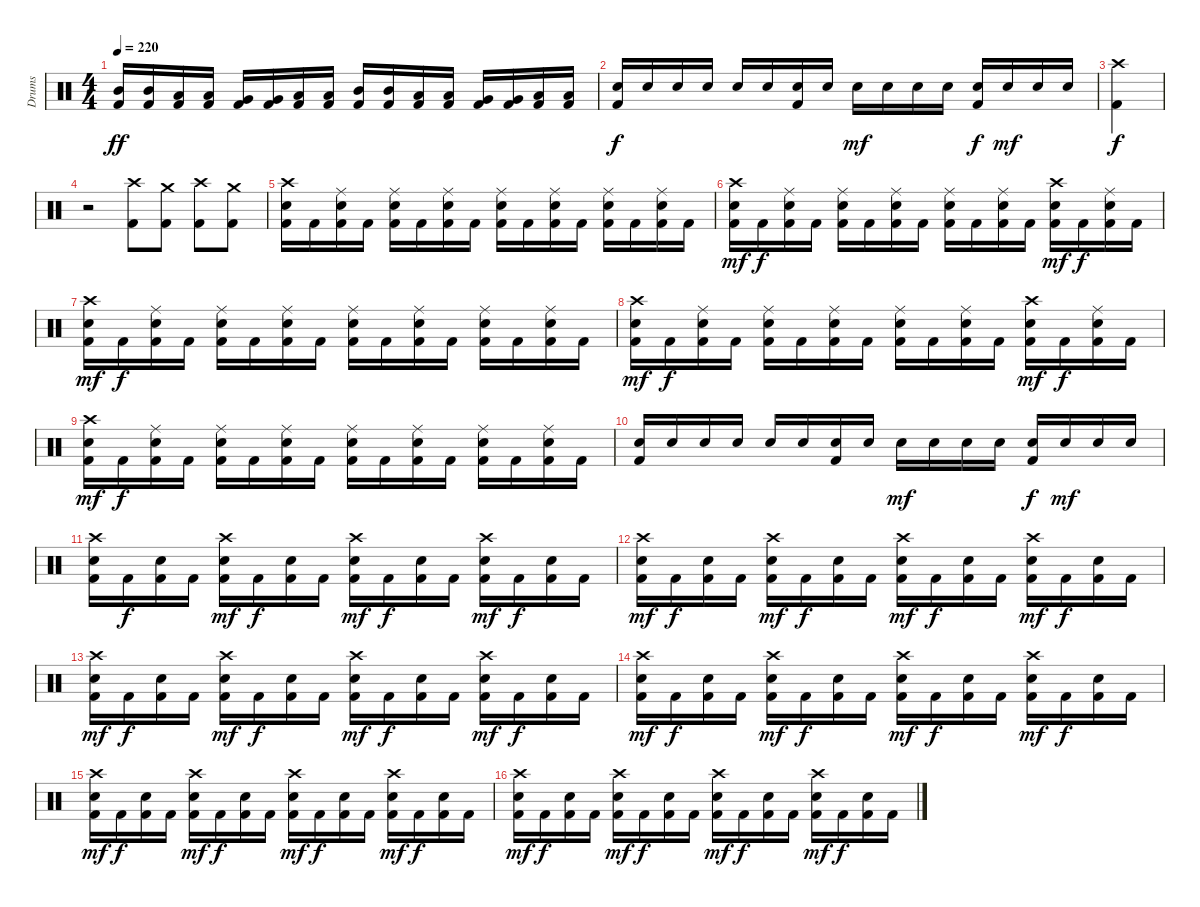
\track ("Drums" "Drums") {instrument percussion}
\staff {score}
\articulation defaults
\ts (4 4)
\tempo 220
\clef neutral
\ks c
("Kick (hit) 2" "Mid Tom (hit)").16{dy ff} ("Kick (hit) 2" "Mid Tom (hit)").16 ("Kick (hit) 2" "Low Tom (hit)").16 ("Kick (hit) 2" "Low Tom (hit)").16 ("Kick (hit) 2" "Very Low Tom (hit)").16 ("Kick (hit) 2" "Very Low Tom (hit)").16 ("Kick (hit) 2" "Low Floor Tom (hit)").16 ("Kick (hit) 2" "Low Floor Tom (hit)").16 ("Kick (hit) 2" "Mid Tom (hit)").16 ("Kick (hit) 2" "Mid Tom (hit)").16 ("Kick (hit) 2" "Low Tom (hit)").16 ("Kick (hit) 2" "Low Tom (hit)").16 ("Kick (hit) 2" "Very Low Tom (hit)").16 ("Kick (hit) 2" "Very Low Tom (hit)").16 ("Kick (hit) 2" "Low Floor Tom (hit)").16 ("Kick (hit) 2" "Low Floor Tom (hit)").16 |
("Electric Snare (hit)" "Kick (hit) 2").16{dy f} "Electric Snare (hit)".16 "Electric Snare (hit)".16 "Electric Snare (hit)".16 "Electric Snare (hit)".16 "Electric Snare (hit)".16 ("Electric Snare (hit)" "Kick (hit) 2").16 "Electric Snare (hit)".16 "Electric Snare (hit)".16{dy mf} "Electric Snare (hit)".16 "Electric Snare (hit)".16 "Electric Snare (hit)".16 ("Electric Snare (hit)" "Kick (hit) 2").16{dy f} "Electric Snare (hit)".16{dy mf} "Electric Snare (hit)".16 "Electric Snare (hit)".16 |
("Kick (hit) 2" "Crash high (hit)").4{dy f} |
r.2 ("Kick (hit) 2" "Crash high (hit)").8 ("Kick (hit) 2" "Crash medium (hit)").8 ("Kick (hit) 2" "Crash high (hit)").8 ("Kick (hit) 2" "Crash medium (hit)").8 |
("Kick (hit) 2" "Electric Snare (hit)" "Crash high (hit)").16 "Kick (hit) 2".16 ("Kick (hit) 2" "Electric Snare (hit)" "Ride (middle)").16 "Kick (hit) 2".16 ("Kick (hit) 2" "Electric Snare (hit)" "Ride (middle)").16 "Kick (hit) 2".16 ("Kick (hit) 2" "Electric Snare (hit)" "Ride (middle)").16 "Kick (hit) 2".16 ("Kick (hit) 2" "Electric Snare (hit)" "Ride (middle)").16 "Kick (hit) 2".16 ("Kick (hit) 2" "Electric Snare (hit)" "Ride (middle)").16 "Kick (hit) 2".16 ("Kick (hit) 2" "Electric Snare (hit)" "Ride (middle)").16 "Kick (hit) 2".16 ("Kick (hit) 2" "Electric Snare (hit)" "Ride (middle)").16 "Kick (hit) 2".16 |
("Kick (hit) 2" "Electric Snare (hit)" "Crash high (hit)").16{dy mf} "Kick (hit) 2".16{dy f} ("Kick (hit) 2" "Electric Snare (hit)" "Ride (middle)").16 "Kick (hit) 2".16 ("Kick (hit) 2" "Electric Snare (hit)" "Ride (middle)").16 "Kick (hit) 2".16 ("Kick (hit) 2" "Electric Snare (hit)" "Ride (middle)").16 "Kick (hit) 2".16 ("Kick (hit) 2" "Electric Snare (hit)" "Ride (middle)").16 "Kick (hit) 2".16 ("Kick (hit) 2" "Electric Snare (hit)" "Ride (middle)").16 "Kick (hit) 2".16 ("Kick (hit) 2" "Electric Snare (hit)" "Crash high (hit)").16{dy mf} "Kick (hit) 2".16{dy f} ("Kick (hit) 2" "Electric Snare (hit)" "Ride (middle)").16 "Kick (hit) 2".16 |
("Kick (hit) 2" "Electric Snare (hit)" "Crash high (hit)").16{dy mf} "Kick (hit) 2".16{dy f} ("Kick (hit) 2" "Electric Snare (hit)" "Ride (middle)").16 "Kick (hit) 2".16 ("Kick (hit) 2" "Electric Snare (hit)" "Ride (middle)").16 "Kick (hit) 2".16 ("Kick (hit) 2" "Electric Snare (hit)" "Ride (middle)").16 "Kick (hit) 2".16 ("Kick (hit) 2" "Electric Snare (hit)" "Ride (middle)").16 "Kick (hit) 2".16 ("Kick (hit) 2" "Electric Snare (hit)" "Ride (middle)").16 "Kick (hit) 2".16 ("Kick (hit) 2" "Electric Snare (hit)" "Ride (middle)").16 "Kick (hit) 2".16 ("Kick (hit) 2" "Electric Snare (hit)" "Ride (middle)").16 "Kick (hit) 2".16 |
("Kick (hit) 2" "Electric Snare (hit)" "Crash high (hit)").16{dy mf} "Kick (hit) 2".16{dy f} ("Kick (hit) 2" "Electric Snare (hit)" "Ride (middle)").16 "Kick (hit) 2".16 ("Kick (hit) 2" "Electric Snare (hit)" "Ride (middle)").16 "Kick (hit) 2".16 ("Kick (hit) 2" "Electric Snare (hit)" "Ride (middle)").16 "Kick (hit) 2".16 ("Kick (hit) 2" "Electric Snare (hit)" "Ride (middle)").16 "Kick (hit) 2".16 ("Kick (hit) 2" "Electric Snare (hit)" "Ride (middle)").16 "Kick (hit) 2".16 ("Kick (hit) 2" "Electric Snare (hit)" "Crash high (hit)").16{dy mf} "Kick (hit) 2".16{dy f} ("Kick (hit) 2" "Electric Snare (hit)" "Ride (middle)").16 "Kick (hit) 2".16 |
("Kick (hit) 2" "Electric Snare (hit)" "Crash high (hit)").16{dy mf} "Kick (hit) 2".16{dy f} ("Kick (hit) 2" "Electric Snare (hit)" "Ride (middle)").16 "Kick (hit) 2".16 ("Kick (hit) 2" "Electric Snare (hit)" "Ride (middle)").16 "Kick (hit) 2".16 ("Kick (hit) 2" "Electric Snare (hit)" "Ride (middle)").16 "Kick (hit) 2".16 ("Kick (hit) 2" "Electric Snare (hit)" "Ride (middle)").16 "Kick (hit) 2".16 ("Kick (hit) 2" "Electric Snare (hit)" "Ride (middle)").16 "Kick (hit) 2".16 ("Kick (hit) 2" "Electric Snare (hit)" "Ride (middle)").16 "Kick (hit) 2".16 ("Kick (hit) 2" "Electric Snare (hit)" "Ride (middle)").16 "Kick (hit) 2".16 |
("Electric Snare (hit)" "Kick (hit) 2").16 "Electric Snare (hit)".16 "Electric Snare (hit)".16 "Electric Snare (hit)".16 "Electric Snare (hit)".16 "Electric Snare (hit)".16 ("Electric Snare (hit)" "Kick (hit) 2").16 "Electric Snare (hit)".16 "Electric Snare (hit)".16{dy mf} "Electric Snare (hit)".16 "Electric Snare (hit)".16 "Electric Snare (hit)".16 ("Electric Snare (hit)" "Kick (hit) 2").16{dy f} "Electric Snare (hit)".16{dy mf} "Electric Snare (hit)".16 "Electric Snare (hit)".16 |
("Kick (hit) 2" "Electric Snare (hit)" "Crash high (hit)").16 "Kick (hit) 2".16{dy f} ("Kick (hit) 2" "Electric Snare (hit)").16 "Kick (hit) 2".16 ("Kick (hit) 2" "Electric Snare (hit)" "Crash high (hit)").16{dy mf} "Kick (hit) 2".16{dy f} ("Kick (hit) 2" "Electric Snare (hit)").16 "Kick (hit) 2".16 ("Kick (hit) 2" "Electric Snare (hit)" "Crash high (hit)").16{dy mf} "Kick (hit) 2".16{dy f} ("Kick (hit) 2" "Electric Snare (hit)").16 "Kick (hit) 2".16 ("Kick (hit) 2" "Electric Snare (hit)" "Crash high (hit)").16{dy mf} "Kick (hit) 2".16{dy f} ("Kick (hit) 2" "Electric Snare (hit)").16 "Kick (hit) 2".16 |
("Kick (hit) 2" "Electric Snare (hit)" "Crash high (hit)").16{dy mf} "Kick (hit) 2".16{dy f} ("Kick (hit) 2" "Electric Snare (hit)").16 "Kick (hit) 2".16 ("Kick (hit) 2" "Electric Snare (hit)" "Crash high (hit)").16{dy mf} "Kick (hit) 2".16{dy f} ("Kick (hit) 2" "Electric Snare (hit)").16 "Kick (hit) 2".16 ("Kick (hit) 2" "Electric Snare (hit)" "Crash high (hit)").16{dy mf} "Kick (hit) 2".16{dy f} ("Kick (hit) 2" "Electric Snare (hit)").16 "Kick (hit) 2".16 ("Kick (hit) 2" "Electric Snare (hit)" "Crash high (hit)").16{dy mf} "Kick (hit) 2".16{dy f} ("Kick (hit) 2" "Electric Snare (hit)").16 "Kick (hit) 2".16 |
("Kick (hit) 2" "Electric Snare (hit)" "Crash high (hit)").16{dy mf} "Kick (hit) 2".16{dy f} ("Kick (hit) 2" "Electric Snare (hit)").16 "Kick (hit) 2".16 ("Kick (hit) 2" "Electric Snare (hit)" "Crash high (hit)").16{dy mf} "Kick (hit) 2".16{dy f} ("Kick (hit) 2" "Electric Snare (hit)").16 "Kick (hit) 2".16 ("Kick (hit) 2" "Electric Snare (hit)" "Crash high (hit)").16{dy mf} "Kick (hit) 2".16{dy f} ("Kick (hit) 2" "Electric Snare (hit)").16 "Kick (hit) 2".16 ("Kick (hit) 2" "Electric Snare (hit)" "Crash high (hit)").16{dy mf} "Kick (hit) 2".16{dy f} ("Kick (hit) 2" "Electric Snare (hit)").16 "Kick (hit) 2".16 |
("Kick (hit) 2" "Electric Snare (hit)" "Crash high (hit)").16{dy mf} "Kick (hit) 2".16{dy f} ("Kick (hit) 2" "Electric Snare (hit)").16 "Kick (hit) 2".16 ("Kick (hit) 2" "Electric Snare (hit)" "Crash high (hit)").16{dy mf} "Kick (hit) 2".16{dy f} ("Kick (hit) 2" "Electric Snare (hit)").16 "Kick (hit) 2".16 ("Kick (hit) 2" "Electric Snare (hit)" "Crash high (hit)").16{dy mf} "Kick (hit) 2".16{dy f} ("Kick (hit) 2" "Electric Snare (hit)").16 "Kick (hit) 2".16 ("Kick (hit) 2" "Electric Snare (hit)" "Crash high (hit)").16{dy mf} "Kick (hit) 2".16{dy f} ("Kick (hit) 2" "Electric Snare (hit)").16 "Kick (hit) 2".16 |
("Kick (hit) 2" "Electric Snare (hit)" "Crash high (hit)").16{dy mf} "Kick (hit) 2".16{dy f} ("Kick (hit) 2" "Electric Snare (hit)").16 "Kick (hit) 2".16 ("Kick (hit) 2" "Electric Snare (hit)" "Crash high (hit)").16{dy mf} "Kick (hit) 2".16{dy f} ("Kick (hit) 2" "Electric Snare (hit)").16 "Kick (hit) 2".16 ("Kick (hit) 2" "Electric Snare (hit)" "Crash high (hit)").16{dy mf} "Kick (hit) 2".16{dy f} ("Kick (hit) 2" "Electric Snare (hit)").16 "Kick (hit) 2".16 ("Kick (hit) 2" "Electric Snare (hit)" "Crash high (hit)").16{dy mf} "Kick (hit) 2".16{dy f} ("Kick (hit) 2" "Electric Snare (hit)").16 "Kick (hit) 2".16 |
("Kick (hit) 2" "Electric Snare (hit)" "Crash high (hit)").16{dy mf} "Kick (hit) 2".16{dy f} ("Kick (hit) 2" "Electric Snare (hit)").16 "Kick (hit) 2".16 ("Kick (hit) 2" "Electric Snare (hit)" "Crash high (hit)").16{dy mf} "Kick (hit) 2".16{dy f} ("Kick (hit) 2" "Electric Snare (hit)").16 "Kick (hit) 2".16 ("Kick (hit) 2" "Electric Snare (hit)" "Crash high (hit)").16{dy mf} "Kick (hit) 2".16{dy f} ("Kick (hit) 2" "Electric Snare (hit)").16 "Kick (hit) 2".16 ("Kick (hit) 2" "Electric Snare (hit)" "Crash high (hit)").16{dy mf} "Kick (hit) 2".16{dy f} ("Kick (hit) 2" "Electric Snare (hit)").16 "Kick (hit) 2".16
